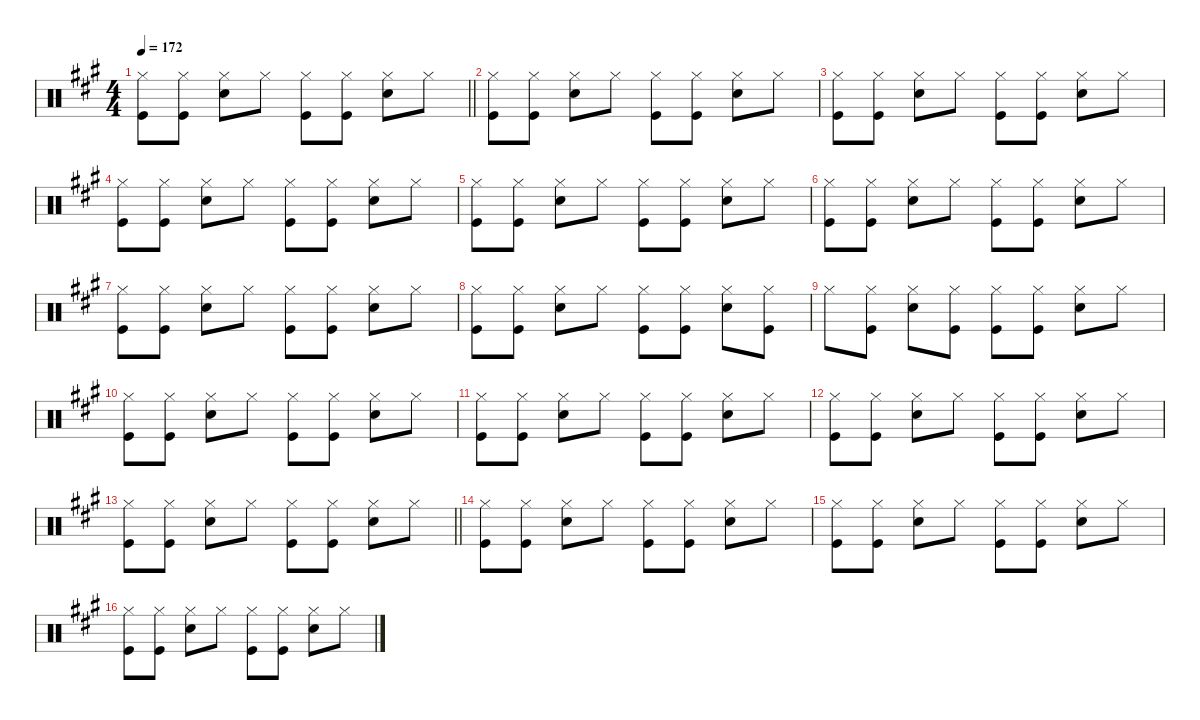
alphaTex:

\defaultSystemsLayout 4
\hideDynamics
\bracketExtendMode nobrackets
\singleTrackTrackNamePolicy hidden
\multiTrackTrackNamePolicy hidden
\firstSystemTrackNameMode fullname
\firstSystemTrackNameOrientation horizontal
\otherSystemsTrackNameOrientation horizontal
\track ("Percussion" "drm.") {instrument percussion}
\staff {score}
\articulation defaults
\ts (4 4)
\tempo 172
\clef neutral
\barLineRight lightlight
\ks a
("Hi-Hat (closed)"{acc forcenatural} "Kick (hit)"{acc forcenatural}).8{dy f beam Down} ("Hi-Hat (closed)"{acc forcenatural} "Kick (hit)"{acc forcenatural}).8{beam Down} ("Hi-Hat (closed)"{acc forcenatural} "Snare (hit) 2"{acc forcenatural}).8{beam Down} "Hi-Hat (closed)"{acc forcenatural}.8{beam Down} ("Hi-Hat (closed)"{acc forcenatural} "Kick (hit)"{acc forcenatural}).8{beam Down} ("Hi-Hat (closed)"{acc forcenatural} "Kick (hit)"{acc forcenatural}).8{beam Down} ("Hi-Hat (closed)"{acc forcenatural} "Snare (hit) 2"{acc forcenatural}).8{beam Down} "Hi-Hat (closed)"{acc forcenatural}.8{beam Down} |
("Hi-Hat (closed)"{acc forcenatural} "Kick (hit)"{acc forcenatural}).8{beam Down} ("Hi-Hat (closed)"{acc forcenatural} "Kick (hit)"{acc forcenatural}).8{beam Down} ("Hi-Hat (closed)"{acc forcenatural} "Snare (hit) 2"{acc forcenatural}).8{beam Down} "Hi-Hat (closed)"{acc forcenatural}.8{beam Down} ("Hi-Hat (closed)"{acc forcenatural} "Kick (hit)"{acc forcenatural}).8{beam Down} ("Hi-Hat (closed)"{acc forcenatural} "Kick (hit)"{acc forcenatural}).8{beam Down} ("Hi-Hat (closed)"{acc forcenatural} "Snare (hit) 2"{acc forcenatural}).8{beam Down} "Hi-Hat (closed)"{acc forcenatural}.8{beam Down} |
("Hi-Hat (closed)"{acc forcenatural} "Kick (hit)"{acc forcenatural}).8{beam Down} ("Hi-Hat (closed)"{acc forcenatural} "Kick (hit)"{acc forcenatural}).8{beam Down} ("Hi-Hat (closed)"{acc forcenatural} "Snare (hit) 2"{acc forcenatural}).8{beam Down} "Hi-Hat (closed)"{acc forcenatural}.8{beam Down} ("Hi-Hat (closed)"{acc forcenatural} "Kick (hit)"{acc forcenatural}).8{beam Down} ("Hi-Hat (closed)"{acc forcenatural} "Kick (hit)"{acc forcenatural}).8{beam Down} ("Hi-Hat (closed)"{acc forcenatural} "Snare (hit) 2"{acc forcenatural}).8{beam Down} "Hi-Hat (closed)"{acc forcenatural}.8{beam Down} |
("Hi-Hat (closed)"{acc forcenatural} "Kick (hit)"{acc forcenatural}).8{beam Down} ("Hi-Hat (closed)"{acc forcenatural} "Kick (hit)"{acc forcenatural}).8{beam Down} ("Hi-Hat (closed)"{acc forcenatural} "Snare (hit) 2"{acc forcenatural}).8{beam Down} "Hi-Hat (closed)"{acc forcenatural}.8{beam Down} ("Hi-Hat (closed)"{acc forcenatural} "Kick (hit)"{acc forcenatural}).8{beam Down} ("Hi-Hat (closed)"{acc forcenatural} "Kick (hit)"{acc forcenatural}).8{beam Down} ("Hi-Hat (closed)"{acc forcenatural} "Snare (hit) 2"{acc forcenatural}).8{beam Down} "Hi-Hat (closed)"{acc forcenatural}.8{beam Down} |
("Hi-Hat (closed)"{acc forcenatural} "Kick (hit)"{acc forcenatural}).8{beam Down} ("Hi-Hat (closed)"{acc forcenatural} "Kick (hit)"{acc forcenatural}).8{beam Down} ("Hi-Hat (closed)"{acc forcenatural} "Snare (hit) 2"{acc forcenatural}).8{beam Down} "Hi-Hat (closed)"{acc forcenatural}.8{beam Down} ("Hi-Hat (closed)"{acc forcenatural} "Kick (hit)"{acc forcenatural}).8{beam Down} ("Hi-Hat (closed)"{acc forcenatural} "Kick (hit)"{acc forcenatural}).8{beam Down} ("Hi-Hat (closed)"{acc forcenatural} "Snare (hit) 2"{acc forcenatural}).8{beam Down} "Hi-Hat (closed)"{acc forcenatural}.8{beam Down} |
("Hi-Hat (closed)"{acc forcenatural} "Kick (hit)"{acc forcenatural}).8{beam Down} ("Hi-Hat (closed)"{acc forcenatural} "Kick (hit)"{acc forcenatural}).8{beam Down} ("Hi-Hat (closed)"{acc forcenatural} "Snare (hit) 2"{acc forcenatural}).8{beam Down} "Hi-Hat (closed)"{acc forcenatural}.8{beam Down} ("Hi-Hat (closed)"{acc forcenatural} "Kick (hit)"{acc forcenatural}).8{beam Down} ("Hi-Hat (closed)"{acc forcenatural} "Kick (hit)"{acc forcenatural}).8{beam Down} ("Hi-Hat (closed)"{acc forcenatural} "Snare (hit) 2"{acc forcenatural}).8{beam Down} "Hi-Hat (closed)"{acc forcenatural}.8{beam Down} |
("Hi-Hat (closed)"{acc forcenatural} "Kick (hit)"{acc forcenatural}).8{beam Down} ("Hi-Hat (closed)"{acc forcenatural} "Kick (hit)"{acc forcenatural}).8{beam Down} ("Hi-Hat (closed)"{acc forcenatural} "Snare (hit) 2"{acc forcenatural}).8{beam Down} "Hi-Hat (closed)"{acc forcenatural}.8{beam Down} ("Hi-Hat (closed)"{acc forcenatural} "Kick (hit)"{acc forcenatural}).8{beam Down} ("Hi-Hat (closed)"{acc forcenatural} "Kick (hit)"{acc forcenatural}).8{beam Down} ("Hi-Hat (closed)"{acc forcenatural} "Snare (hit) 2"{acc forcenatural}).8{beam Down} "Hi-Hat (closed)"{acc forcenatural}.8{beam Down} |
("Hi-Hat (closed)"{acc forcenatural} "Kick (hit)"{acc forcenatural}).8{beam Down} ("Hi-Hat (closed)"{acc forcenatural} "Kick (hit)"{acc forcenatural}).8{beam Down} ("Hi-Hat (closed)"{acc forcenatural} "Snare (hit) 2"{acc forcenatural}).8{beam Down} "Hi-Hat (closed)"{acc forcenatural}.8{beam Down} ("Hi-Hat (closed)"{acc forcenatural} "Kick (hit)"{acc forcenatural}).8{beam Down} ("Hi-Hat (closed)"{acc forcenatural} "Kick (hit)"{acc forcenatural}).8{beam Down} ("Hi-Hat (closed)"{acc forcenatural} "Snare (hit) 2"{acc forcenatural}).8{beam Down} ("Hi-Hat (closed)"{acc forcenatural} "Kick (hit)"{acc forcenatural}).8{beam Down} |
"Hi-Hat (closed)"{acc forcenatural}.8{beam Down} ("Hi-Hat (closed)"{acc forcenatural} "Kick (hit)"{acc forcenatural}).8{beam Down} ("Hi-Hat (closed)"{acc forcenatural} "Snare (hit) 2"{acc forcenatural}).8{beam Down} ("Hi-Hat (closed)"{acc forcenatural} "Kick (hit)"{acc forcenatural}).8{beam Down} ("Hi-Hat (closed)"{acc forcenatural} "Kick (hit)"{acc forcenatural}).8{beam Down} ("Hi-Hat (closed)"{acc forcenatural} "Kick (hit)"{acc forcenatural}).8{beam Down} ("Hi-Hat (closed)"{acc forcenatural} "Snare (hit) 2"{acc forcenatural}).8{beam Down} "Hi-Hat (closed)"{acc forcenatural}.8{beam Down} |
("Hi-Hat (closed)"{acc forcenatural} "Kick (hit)"{acc forcenatural}).8{beam Down} ("Hi-Hat (closed)"{acc forcenatural} "Kick (hit)"{acc forcenatural}).8{beam Down} ("Hi-Hat (closed)"{acc forcenatural} "Snare (hit) 2"{acc forcenatural}).8{beam Down} "Hi-Hat (closed)"{acc forcenatural}.8{beam Down} ("Hi-Hat (closed)"{acc forcenatural} "Kick (hit)"{acc forcenatural}).8{beam Down} ("Hi-Hat (closed)"{acc forcenatural} "Kick (hit)"{acc forcenatural}).8{beam Down} ("Hi-Hat (closed)"{acc forcenatural} "Snare (hit) 2"{acc forcenatural}).8{beam Down} "Hi-Hat (closed)"{acc forcenatural}.8{beam Down} |
("Hi-Hat (closed)"{acc forcenatural} "Kick (hit)"{acc forcenatural}).8{beam Down} ("Hi-Hat (closed)"{acc forcenatural} "Kick (hit)"{acc forcenatural}).8{beam Down} ("Hi-Hat (closed)"{acc forcenatural} "Snare (hit) 2"{acc forcenatural}).8{beam Down} "Hi-Hat (closed)"{acc forcenatural}.8{beam Down} ("Hi-Hat (closed)"{acc forcenatural} "Kick (hit)"{acc forcenatural}).8{beam Down} ("Hi-Hat (closed)"{acc forcenatural} "Kick (hit)"{acc forcenatural}).8{beam Down} ("Hi-Hat (closed)"{acc forcenatural} "Snare (hit) 2"{acc forcenatural}).8{beam Down} "Hi-Hat (closed)"{acc forcenatural}.8{beam Down} |
("Hi-Hat (closed)"{acc forcenatural} "Kick (hit)"{acc forcenatural}).8{beam Down} ("Hi-Hat (closed)"{acc forcenatural} "Kick (hit)"{acc forcenatural}).8{beam Down} ("Hi-Hat (closed)"{acc forcenatural} "Snare (hit) 2"{acc forcenatural}).8{beam Down} "Hi-Hat (closed)"{acc forcenatural}.8{beam Down} ("Hi-Hat (closed)"{acc forcenatural} "Kick (hit)"{acc forcenatural}).8{beam Down} ("Hi-Hat (closed)"{acc forcenatural} "Kick (hit)"{acc forcenatural}).8{beam Down} ("Hi-Hat (closed)"{acc forcenatural} "Snare (hit) 2"{acc forcenatural}).8{beam Down} "Hi-Hat (closed)"{acc forcenatural}.8{beam Down} |
\barLineRight lightlight
("Hi-Hat (closed)"{acc forcenatural} "Kick (hit)"{acc forcenatural}).8{beam Down} ("Hi-Hat (closed)"{acc forcenatural} "Kick (hit)"{acc forcenatural}).8{beam Down} ("Hi-Hat (closed)"{acc forcenatural} "Snare (hit) 2"{acc forcenatural}).8{beam Down} "Hi-Hat (closed)"{acc forcenatural}.8{beam Down} ("Hi-Hat (closed)"{acc forcenatural} "Kick (hit)"{acc forcenatural}).8{beam Down} ("Hi-Hat (closed)"{acc forcenatural} "Kick (hit)"{acc forcenatural}).8{beam Down} ("Hi-Hat (closed)"{acc forcenatural} "Snare (hit) 2"{acc forcenatural}).8{beam Down} "Hi-Hat (closed)"{acc forcenatural}.8{beam Down} |
("Hi-Hat (closed)"{acc forcenatural} "Kick (hit)"{acc forcenatural}).8{beam Down} ("Hi-Hat (closed)"{acc forcenatural} "Kick (hit)"{acc forcenatural}).8{beam Down} ("Hi-Hat (closed)"{acc forcenatural} "Snare (hit) 2"{acc forcenatural}).8{beam Down} "Hi-Hat (closed)"{acc forcenatural}.8{beam Down} ("Hi-Hat (closed)"{acc forcenatural} "Kick (hit)"{acc forcenatural}).8{beam Down} ("Hi-Hat (closed)"{acc forcenatural} "Kick (hit)"{acc forcenatural}).8{beam Down} ("Hi-Hat (closed)"{acc forcenatural} "Snare (hit) 2"{acc forcenatural}).8{beam Down} "Hi-Hat (closed)"{acc forcenatural}.8{beam Down} |
("Hi-Hat (closed)"{acc forcenatural} "Kick (hit)"{acc forcenatural}).8{beam Down} ("Hi-Hat (closed)"{acc forcenatural} "Kick (hit)"{acc forcenatural}).8{beam Down} ("Hi-Hat (closed)"{acc forcenatural} "Snare (hit) 2"{acc forcenatural}).8{beam Down} "Hi-Hat (closed)"{acc forcenatural}.8{beam Down} ("Hi-Hat (closed)"{acc forcenatural} "Kick (hit)"{acc forcenatural}).8{beam Down} ("Hi-Hat (closed)"{acc forcenatural} "Kick (hit)"{acc forcenatural}).8{beam Down} ("Hi-Hat (closed)"{acc forcenatural} "Snare (hit) 2"{acc forcenatural}).8{beam Down} "Hi-Hat (closed)"{acc forcenatural}.8{beam Down} |
("Hi-Hat (closed)"{acc forcenatural} "Kick (hit)"{acc forcenatural}).8{beam Down} ("Hi-Hat (closed)"{acc forcenatural} "Kick (hit)"{acc forcenatural}).8{beam Down} ("Hi-Hat (closed)"{acc forcenatural} "Snare (hit) 2"{acc forcenatural}).8{beam Down} "Hi-Hat (closed)"{acc forcenatural}.8{beam Down} ("Hi-Hat (closed)"{acc forcenatural} "Kick (hit)"{acc forcenatural}).8{beam Down} ("Hi-Hat (closed)"{acc forcenatural} "Kick (hit)"{acc forcenatural}).8{beam Down} ("Hi-Hat (closed)"{acc forcenatural} "Snare (hit) 2"{acc forcenatural}).8{beam Down} "Hi-Hat (closed)"{acc forcenatural}.8{beam Down}
